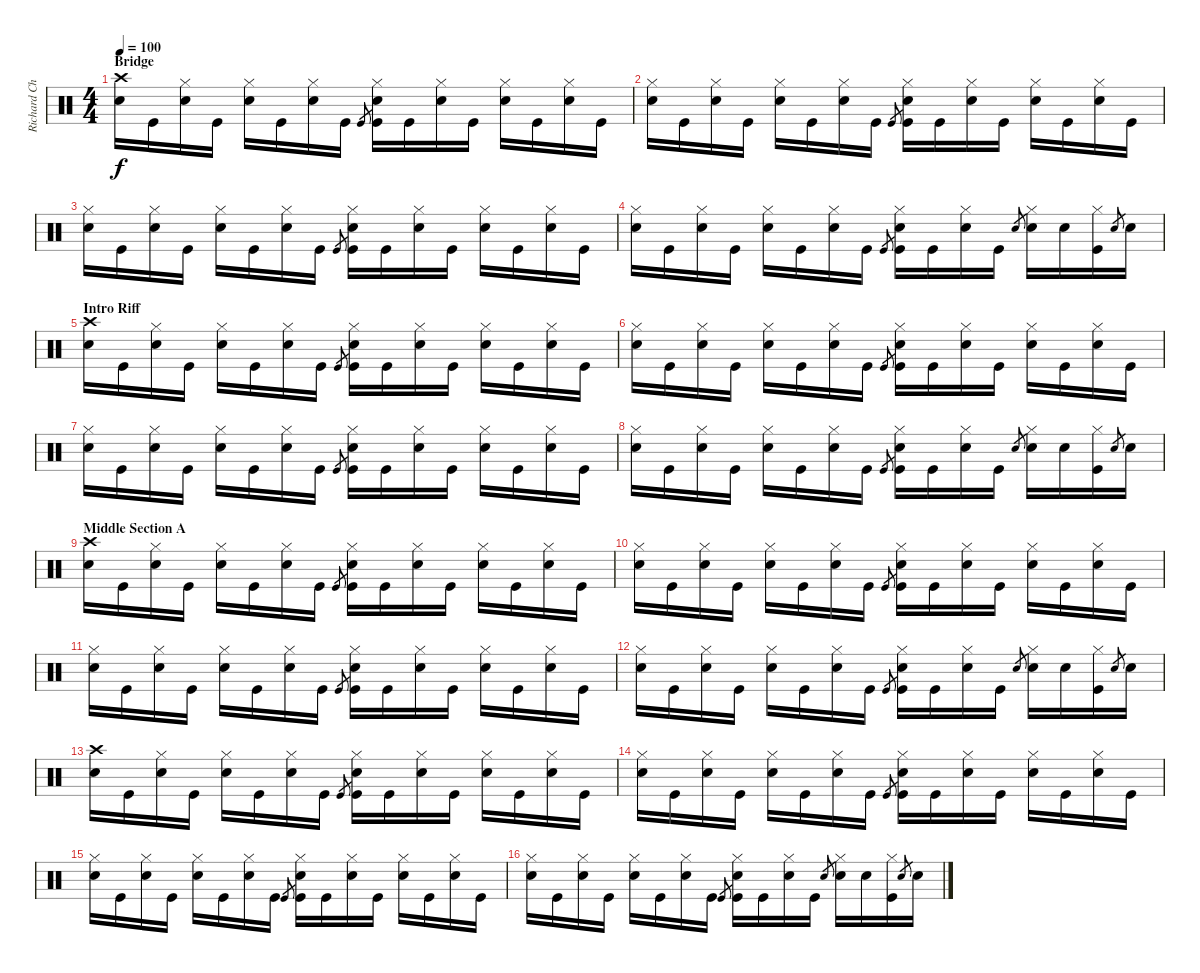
\track ("Richard Chadwick - Drums" "Richard Ch") {instrument percussion}
\staff {score}
\articulation defaults
\ts (4 4)
\section ("" "Bridge")
\tempo 100
\clef neutral
\ks c
("Crash high (hit)" "Snare (hit) 2").16{dy f} "Kick (hit)".16 ("Hi-Hat (closed)" "Snare (hit) 2").16 "Kick (hit)".16 ("Hi-Hat (closed)" "Snare (hit) 2").16 "Kick (hit)".16 ("Hi-Hat (closed)" "Snare (hit) 2").16 "Kick (hit)".16 "Kick (hit)".8{gr} ("Hi-Hat (closed)" "Snare (hit) 2" "Kick (hit)").16 "Kick (hit)".16 ("Hi-Hat (closed)" "Snare (hit) 2").16 "Kick (hit)".16 ("Hi-Hat (closed)" "Snare (hit) 2").16 "Kick (hit)".16 ("Hi-Hat (closed)" "Snare (hit) 2").16 "Kick (hit)".16 |
("Hi-Hat (closed)" "Snare (hit) 2").16 "Kick (hit)".16 ("Hi-Hat (closed)" "Snare (hit) 2").16 "Kick (hit)".16 ("Hi-Hat (closed)" "Snare (hit) 2").16 "Kick (hit)".16 ("Hi-Hat (closed)" "Snare (hit) 2").16 "Kick (hit)".16 "Kick (hit)".8{gr} ("Hi-Hat (closed)" "Snare (hit) 2" "Kick (hit)").16 "Kick (hit)".16 ("Hi-Hat (closed)" "Snare (hit) 2").16 "Kick (hit)".16 ("Hi-Hat (closed)" "Snare (hit) 2").16 "Kick (hit)".16 ("Hi-Hat (closed)" "Snare (hit) 2").16 "Kick (hit)".16 |
("Hi-Hat (closed)" "Snare (hit) 2").16 "Kick (hit)".16 ("Hi-Hat (closed)" "Snare (hit) 2").16 "Kick (hit)".16 ("Hi-Hat (closed)" "Snare (hit) 2").16 "Kick (hit)".16 ("Hi-Hat (closed)" "Snare (hit) 2").16 "Kick (hit)".16 "Kick (hit)".8{gr} ("Hi-Hat (closed)" "Snare (hit) 2" "Kick (hit)").16 "Kick (hit)".16 ("Hi-Hat (closed)" "Snare (hit) 2").16 "Kick (hit)".16 ("Hi-Hat (closed)" "Snare (hit) 2").16 "Kick (hit)".16 ("Hi-Hat (closed)" "Snare (hit) 2").16 "Kick (hit)".16 |
("Hi-Hat (closed)" "Snare (hit) 2").16 "Kick (hit)".16 ("Hi-Hat (closed)" "Snare (hit) 2").16 "Kick (hit)".16 ("Hi-Hat (closed)" "Snare (hit) 2").16 "Kick (hit)".16 ("Hi-Hat (closed)" "Snare (hit) 2").16 "Kick (hit)".16 "Kick (hit)".8{gr} ("Hi-Hat (closed)" "Snare (hit) 2" "Kick (hit)").16 "Kick (hit)".16 ("Hi-Hat (closed)" "Snare (hit) 2").16 "Kick (hit)".16 "Snare (hit) 2".8{gr} ("Hi-Hat (closed)" "Snare (hit) 2").16 "Snare (hit) 2".16 ("Hi-Hat (closed)" "Kick (hit)").16 "Snare (hit) 2".8{gr} "Snare (hit) 2".16 |
\section ("" "Intro Riff")
("Crash high (hit)" "Snare (hit) 2").16 "Kick (hit)".16 ("Hi-Hat (closed)" "Snare (hit) 2").16 "Kick (hit)".16 ("Hi-Hat (closed)" "Snare (hit) 2").16 "Kick (hit)".16 ("Hi-Hat (closed)" "Snare (hit) 2").16 "Kick (hit)".16 "Kick (hit)".8{gr} ("Hi-Hat (closed)" "Snare (hit) 2" "Kick (hit)").16 "Kick (hit)".16 ("Hi-Hat (closed)" "Snare (hit) 2").16 "Kick (hit)".16 ("Hi-Hat (closed)" "Snare (hit) 2").16 "Kick (hit)".16 ("Hi-Hat (closed)" "Snare (hit) 2").16 "Kick (hit)".16 |
("Hi-Hat (closed)" "Snare (hit) 2").16 "Kick (hit)".16 ("Hi-Hat (closed)" "Snare (hit) 2").16 "Kick (hit)".16 ("Hi-Hat (closed)" "Snare (hit) 2").16 "Kick (hit)".16 ("Hi-Hat (closed)" "Snare (hit) 2").16 "Kick (hit)".16 "Kick (hit)".8{gr} ("Hi-Hat (closed)" "Snare (hit) 2" "Kick (hit)").16 "Kick (hit)".16 ("Hi-Hat (closed)" "Snare (hit) 2").16 "Kick (hit)".16 ("Hi-Hat (closed)" "Snare (hit) 2").16 "Kick (hit)".16 ("Hi-Hat (closed)" "Snare (hit) 2").16 "Kick (hit)".16 |
("Hi-Hat (closed)" "Snare (hit) 2").16 "Kick (hit)".16 ("Hi-Hat (closed)" "Snare (hit) 2").16 "Kick (hit)".16 ("Hi-Hat (closed)" "Snare (hit) 2").16 "Kick (hit)".16 ("Hi-Hat (closed)" "Snare (hit) 2").16 "Kick (hit)".16 "Kick (hit)".8{gr} ("Hi-Hat (closed)" "Snare (hit) 2" "Kick (hit)").16 "Kick (hit)".16 ("Hi-Hat (closed)" "Snare (hit) 2").16 "Kick (hit)".16 ("Hi-Hat (closed)" "Snare (hit) 2").16 "Kick (hit)".16 ("Hi-Hat (closed)" "Snare (hit) 2").16 "Kick (hit)".16 |
("Hi-Hat (closed)" "Snare (hit) 2").16 "Kick (hit)".16 ("Hi-Hat (closed)" "Snare (hit) 2").16 "Kick (hit)".16 ("Hi-Hat (closed)" "Snare (hit) 2").16 "Kick (hit)".16 ("Hi-Hat (closed)" "Snare (hit) 2").16 "Kick (hit)".16 "Kick (hit)".8{gr} ("Hi-Hat (closed)" "Snare (hit) 2" "Kick (hit)").16 "Kick (hit)".16 ("Hi-Hat (closed)" "Snare (hit) 2").16 "Kick (hit)".16 "Snare (hit) 2".8{gr} ("Hi-Hat (closed)" "Snare (hit) 2").16 "Snare (hit) 2".16 ("Hi-Hat (closed)" "Kick (hit)").16 "Snare (hit) 2".8{gr} "Snare (hit) 2".16 |
\section ("" "Middle Section A")
("Crash high (hit)" "Snare (hit) 2").16 "Kick (hit)".16 ("Hi-Hat (closed)" "Snare (hit) 2").16 "Kick (hit)".16 ("Hi-Hat (closed)" "Snare (hit) 2").16 "Kick (hit)".16 ("Hi-Hat (closed)" "Snare (hit) 2").16 "Kick (hit)".16 "Kick (hit)".8{gr} ("Hi-Hat (closed)" "Snare (hit) 2" "Kick (hit)").16 "Kick (hit)".16 ("Hi-Hat (closed)" "Snare (hit) 2").16 "Kick (hit)".16 ("Hi-Hat (closed)" "Snare (hit) 2").16 "Kick (hit)".16 ("Hi-Hat (closed)" "Snare (hit) 2").16 "Kick (hit)".16 |
("Hi-Hat (closed)" "Snare (hit) 2").16 "Kick (hit)".16 ("Hi-Hat (closed)" "Snare (hit) 2").16 "Kick (hit)".16 ("Hi-Hat (closed)" "Snare (hit) 2").16 "Kick (hit)".16 ("Hi-Hat (closed)" "Snare (hit) 2").16 "Kick (hit)".16 "Kick (hit)".8{gr} ("Hi-Hat (closed)" "Snare (hit) 2" "Kick (hit)").16 "Kick (hit)".16 ("Hi-Hat (closed)" "Snare (hit) 2").16 "Kick (hit)".16 ("Hi-Hat (closed)" "Snare (hit) 2").16 "Kick (hit)".16 ("Hi-Hat (closed)" "Snare (hit) 2").16 "Kick (hit)".16 |
("Hi-Hat (closed)" "Snare (hit) 2").16 "Kick (hit)".16 ("Hi-Hat (closed)" "Snare (hit) 2").16 "Kick (hit)".16 ("Hi-Hat (closed)" "Snare (hit) 2").16 "Kick (hit)".16 ("Hi-Hat (closed)" "Snare (hit) 2").16 "Kick (hit)".16 "Kick (hit)".8{gr} ("Hi-Hat (closed)" "Snare (hit) 2" "Kick (hit)").16 "Kick (hit)".16 ("Hi-Hat (closed)" "Snare (hit) 2").16 "Kick (hit)".16 ("Hi-Hat (closed)" "Snare (hit) 2").16 "Kick (hit)".16 ("Hi-Hat (closed)" "Snare (hit) 2").16 "Kick (hit)".16 |
("Hi-Hat (closed)" "Snare (hit) 2").16 "Kick (hit)".16 ("Hi-Hat (closed)" "Snare (hit) 2").16 "Kick (hit)".16 ("Hi-Hat (closed)" "Snare (hit) 2").16 "Kick (hit)".16 ("Hi-Hat (closed)" "Snare (hit) 2").16 "Kick (hit)".16 "Kick (hit)".8{gr} ("Hi-Hat (closed)" "Snare (hit) 2" "Kick (hit)").16 "Kick (hit)".16 ("Hi-Hat (closed)" "Snare (hit) 2").16 "Kick (hit)".16 "Snare (hit) 2".8{gr} ("Hi-Hat (closed)" "Snare (hit) 2").16 "Snare (hit) 2".16 ("Hi-Hat (closed)" "Kick (hit)").16 "Snare (hit) 2".8{gr} "Snare (hit) 2".16 |
("Crash high (hit)" "Snare (hit) 2").16 "Kick (hit)".16 ("Hi-Hat (closed)" "Snare (hit) 2").16 "Kick (hit)".16 ("Hi-Hat (closed)" "Snare (hit) 2").16 "Kick (hit)".16 ("Hi-Hat (closed)" "Snare (hit) 2").16 "Kick (hit)".16 "Kick (hit)".8{gr} ("Hi-Hat (closed)" "Snare (hit) 2" "Kick (hit)").16 "Kick (hit)".16 ("Hi-Hat (closed)" "Snare (hit) 2").16 "Kick (hit)".16 ("Hi-Hat (closed)" "Snare (hit) 2").16 "Kick (hit)".16 ("Hi-Hat (closed)" "Snare (hit) 2").16 "Kick (hit)".16 |
("Hi-Hat (closed)" "Snare (hit) 2").16 "Kick (hit)".16 ("Hi-Hat (closed)" "Snare (hit) 2").16 "Kick (hit)".16 ("Hi-Hat (closed)" "Snare (hit) 2").16 "Kick (hit)".16 ("Hi-Hat (closed)" "Snare (hit) 2").16 "Kick (hit)".16 "Kick (hit)".8{gr} ("Hi-Hat (closed)" "Snare (hit) 2" "Kick (hit)").16 "Kick (hit)".16 ("Hi-Hat (closed)" "Snare (hit) 2").16 "Kick (hit)".16 ("Hi-Hat (closed)" "Snare (hit) 2").16 "Kick (hit)".16 ("Hi-Hat (closed)" "Snare (hit) 2").16 "Kick (hit)".16 |
("Hi-Hat (closed)" "Snare (hit) 2").16 "Kick (hit)".16 ("Hi-Hat (closed)" "Snare (hit) 2").16 "Kick (hit)".16 ("Hi-Hat (closed)" "Snare (hit) 2").16 "Kick (hit)".16 ("Hi-Hat (closed)" "Snare (hit) 2").16 "Kick (hit)".16 "Kick (hit)".8{gr} ("Hi-Hat (closed)" "Snare (hit) 2" "Kick (hit)").16 "Kick (hit)".16 ("Hi-Hat (closed)" "Snare (hit) 2").16 "Kick (hit)".16 ("Hi-Hat (closed)" "Snare (hit) 2").16 "Kick (hit)".16 ("Hi-Hat (closed)" "Snare (hit) 2").16 "Kick (hit)".16 |
("Hi-Hat (closed)" "Snare (hit) 2").16 "Kick (hit)".16 ("Hi-Hat (closed)" "Snare (hit) 2").16 "Kick (hit)".16 ("Hi-Hat (closed)" "Snare (hit) 2").16 "Kick (hit)".16 ("Hi-Hat (closed)" "Snare (hit) 2").16 "Kick (hit)".16 "Kick (hit)".8{gr} ("Hi-Hat (closed)" "Snare (hit) 2" "Kick (hit)").16 "Kick (hit)".16 ("Hi-Hat (closed)" "Snare (hit) 2").16 "Kick (hit)".16 "Snare (hit) 2".8{gr} ("Hi-Hat (closed)" "Snare (hit) 2").16 "Snare (hit) 2".16 ("Hi-Hat (closed)" "Kick (hit)").16 "Snare (hit) 2".8{gr} "Snare (hit) 2".16
